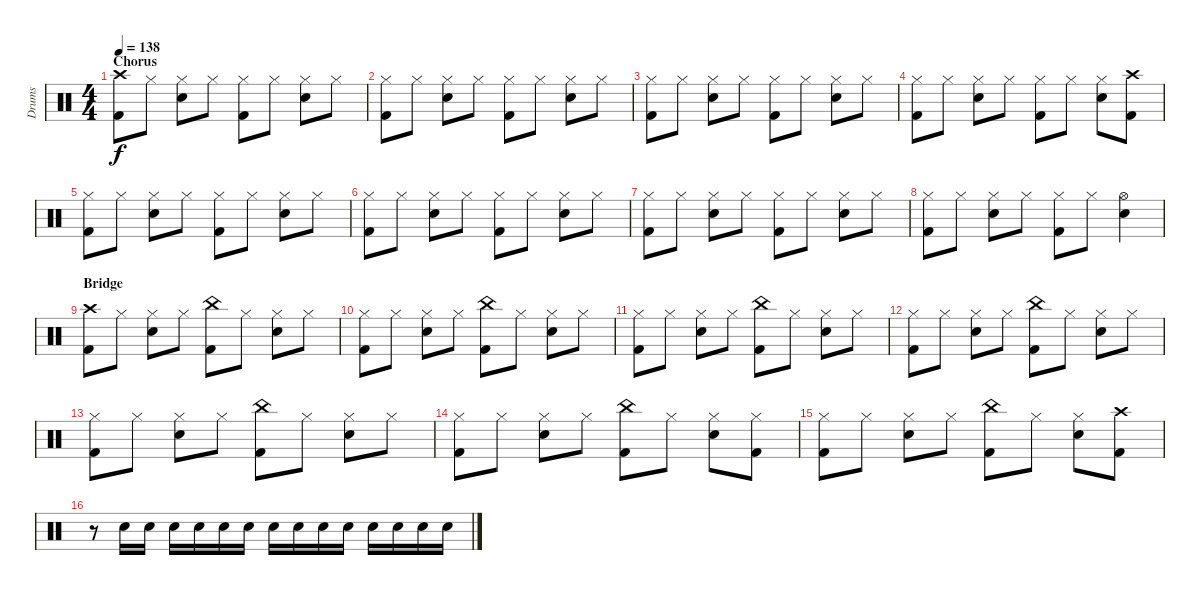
\track ("Drums" "Drums") {instrument percussion}
\staff {score}
\articulation defaults
\ts (4 4)
\section ("" "Chorus")
\tempo 138
\clef neutral
\ks c
("Crash high (hit)" "Kick (hit) 2").8{dy f} "Hi-Hat (closed)".8 ("Hi-Hat (closed)" "Snare (hit) 2").8 "Hi-Hat (closed)".8 ("Hi-Hat (closed)" "Kick (hit) 2").8 "Hi-Hat (closed)".8 ("Hi-Hat (closed)" "Snare (hit) 2").8 "Hi-Hat (closed)".8 |
("Hi-Hat (closed)" "Kick (hit) 2").8 "Hi-Hat (closed)".8 ("Hi-Hat (closed)" "Snare (hit) 2").8 "Hi-Hat (closed)".8 ("Hi-Hat (closed)" "Kick (hit) 2").8 "Hi-Hat (closed)".8 ("Hi-Hat (closed)" "Snare (hit) 2").8 "Hi-Hat (closed)".8 |
("Hi-Hat (closed)" "Kick (hit) 2").8 "Hi-Hat (closed)".8 ("Hi-Hat (closed)" "Snare (hit) 2").8 "Hi-Hat (closed)".8 ("Hi-Hat (closed)" "Kick (hit) 2").8 "Hi-Hat (closed)".8 ("Hi-Hat (closed)" "Snare (hit) 2").8 "Hi-Hat (closed)".8 |
("Hi-Hat (closed)" "Kick (hit) 2").8 "Hi-Hat (closed)".8 ("Hi-Hat (closed)" "Snare (hit) 2").8 "Hi-Hat (closed)".8 ("Hi-Hat (closed)" "Kick (hit) 2").8 "Hi-Hat (closed)".8 ("Hi-Hat (closed)" "Snare (hit) 2").8 ("Crash high (hit)" "Kick (hit) 2").8 |
("Hi-Hat (closed)" "Kick (hit) 2").8 "Hi-Hat (closed)".8 ("Hi-Hat (closed)" "Snare (hit) 2").8 "Hi-Hat (closed)".8 ("Hi-Hat (closed)" "Kick (hit) 2").8 "Hi-Hat (closed)".8 ("Hi-Hat (closed)" "Snare (hit) 2").8 "Hi-Hat (closed)".8 |
("Hi-Hat (closed)" "Kick (hit) 2").8 "Hi-Hat (closed)".8 ("Hi-Hat (closed)" "Snare (hit) 2").8 "Hi-Hat (closed)".8 ("Hi-Hat (closed)" "Kick (hit) 2").8 "Hi-Hat (closed)".8 ("Hi-Hat (closed)" "Snare (hit) 2").8 "Hi-Hat (closed)".8 |
("Hi-Hat (closed)" "Kick (hit) 2").8 "Hi-Hat (closed)".8 ("Hi-Hat (closed)" "Snare (hit) 2").8 "Hi-Hat (closed)".8 ("Hi-Hat (closed)" "Kick (hit) 2").8 "Hi-Hat (closed)".8 ("Hi-Hat (closed)" "Snare (hit) 2").8 "Hi-Hat (closed)".8 |
("Hi-Hat (closed)" "Kick (hit) 2").8 "Hi-Hat (closed)".8 ("Hi-Hat (closed)" "Snare (hit) 2").8 "Hi-Hat (closed)".8 ("Hi-Hat (closed)" "Kick (hit) 2").8 "Hi-Hat (closed)".8 ("Hi-Hat (open)" "Snare (hit) 2").4 |
\section ("" "Bridge")
("Crash high (hit)" "Kick (hit) 2").8 "Hi-Hat (closed)".8 ("Hi-Hat (closed)" "Snare (hit) 2").8 "Hi-Hat (closed)".8 ("China (hit)" "Kick (hit) 2").8 "Hi-Hat (closed)".8 ("Hi-Hat (closed)" "Snare (hit) 2").8 "Hi-Hat (closed)".8 |
("Hi-Hat (closed)" "Kick (hit) 2").8 "Hi-Hat (closed)".8 ("Hi-Hat (closed)" "Snare (hit) 2").8 "Hi-Hat (closed)".8 ("China (hit)" "Kick (hit) 2").8 "Hi-Hat (closed)".8 ("Hi-Hat (closed)" "Snare (hit) 2").8 "Hi-Hat (closed)".8 |
("Hi-Hat (closed)" "Kick (hit) 2").8 "Hi-Hat (closed)".8 ("Hi-Hat (closed)" "Snare (hit) 2").8 "Hi-Hat (closed)".8 ("China (hit)" "Kick (hit) 2").8 "Hi-Hat (closed)".8 ("Hi-Hat (closed)" "Snare (hit) 2").8 "Hi-Hat (closed)".8 |
("Hi-Hat (closed)" "Kick (hit) 2").8 "Hi-Hat (closed)".8 ("Hi-Hat (closed)" "Snare (hit) 2").8 "Hi-Hat (closed)".8 ("China (hit)" "Kick (hit) 2").8 "Hi-Hat (closed)".8 ("Hi-Hat (closed)" "Snare (hit) 2").8 "Hi-Hat (closed)".8 |
("Hi-Hat (closed)" "Kick (hit) 2").8 "Hi-Hat (closed)".8 ("Hi-Hat (closed)" "Snare (hit) 2").8 "Hi-Hat (closed)".8 ("China (hit)" "Kick (hit) 2").8 "Hi-Hat (closed)".8 ("Hi-Hat (closed)" "Snare (hit) 2").8 "Hi-Hat (closed)".8 |
("Hi-Hat (closed)" "Kick (hit) 2").8 "Hi-Hat (closed)".8 ("Hi-Hat (closed)" "Snare (hit) 2").8 "Hi-Hat (closed)".8 ("China (hit)" "Kick (hit) 2").8 "Hi-Hat (closed)".8 ("Hi-Hat (closed)" "Snare (hit) 2").8 ("Hi-Hat (closed)" "Kick (hit) 2").8 |
("Hi-Hat (closed)" "Kick (hit) 2").8 "Hi-Hat (closed)".8 ("Hi-Hat (closed)" "Snare (hit) 2").8 "Hi-Hat (closed)".8 ("China (hit)" "Kick (hit) 2").8 "Hi-Hat (closed)".8 ("Hi-Hat (closed)" "Snare (hit) 2").8 ("Crash high (hit)" "Kick (hit) 2").8 |
r.8 "Snare (hit) 2".16 "Snare (hit) 2".16 "Snare (hit) 2".16 "Snare (hit) 2".16 "Snare (hit) 2".16 "Snare (hit) 2".16 "Snare (hit) 2".16 "Snare (hit) 2".16 "Snare (hit) 2".16 "Snare (hit) 2".16 "Snare (hit) 2".16 "Snare (hit) 2".16 "Snare (hit) 2".16 "Snare (hit) 2".16
